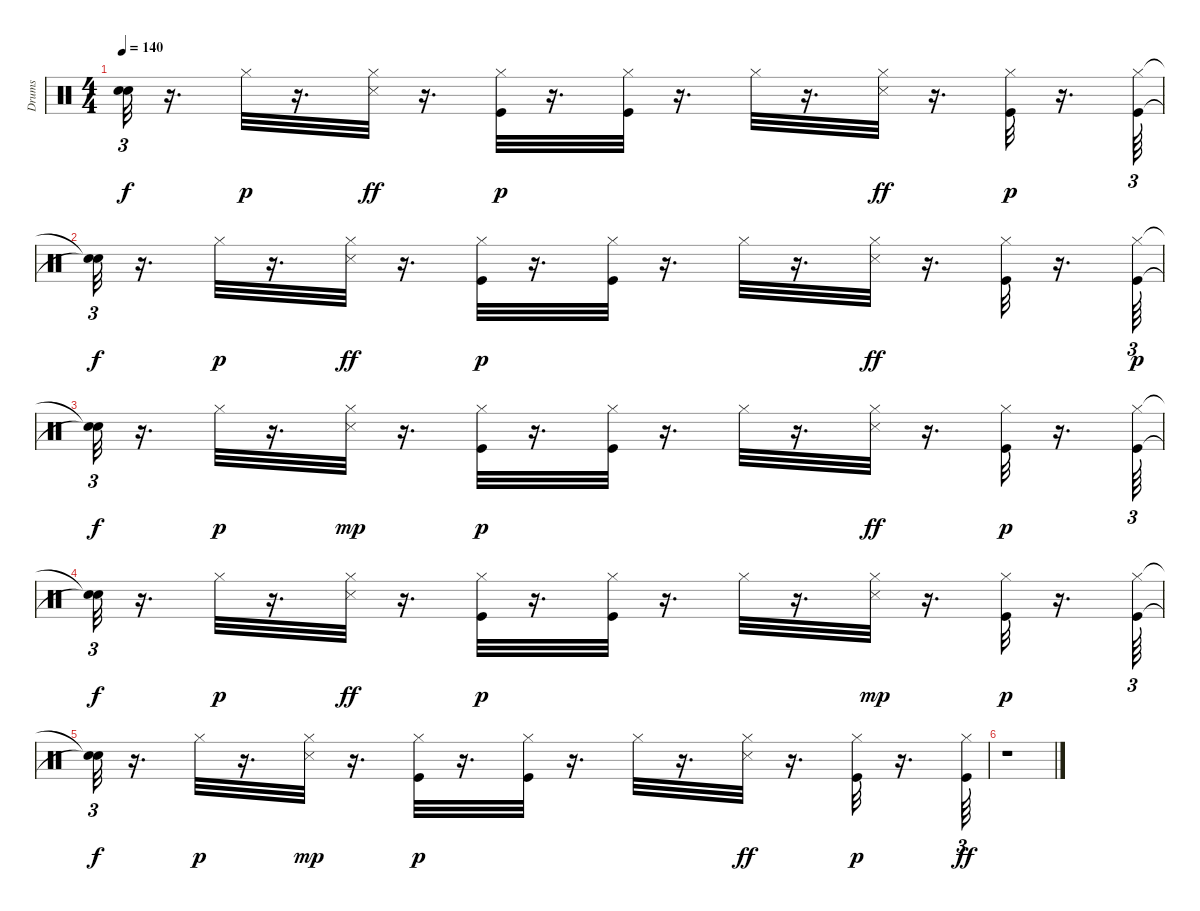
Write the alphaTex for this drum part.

\track ("Drums" "Drums") {instrument percussion}
\staff {score}
\articulation defaults
\ts (4 4)
\tempo 140
\clef neutral
\ks c
("Snare (hit)"{t} "Snare (hit)"{t}).32{tu (3 2) dy f} r.16{d} "Hi-Hat (closed)".32{dy p} r.16{d} ("Hi-Hat (closed)" "Snare (side stick) 3").32{dy ff} r.16{d} ("Hi-Hat (closed)" "Kick (hit)").32{dy p} r.16{d} ("Hi-Hat (closed)" "Kick (hit)").32 r.16{d} "Hi-Hat (closed)".32 r.16{d} ("Hi-Hat (closed)" "Snare (side stick) 3").32{dy ff} r.16{d} ("Hi-Hat (closed)" "Kick (hit)").32{dy p} r.16{d} ("Hi-Hat (closed)" "Kick (hit)").64{tu (3 2)} |
("Snare (hit)"{t} "Snare (hit)"{t}).32{tu (3 2) dy f} r.16{d} "Hi-Hat (closed)".32{dy p} r.16{d} ("Hi-Hat (closed)" "Snare (side stick) 3").32{dy ff} r.16{d} ("Hi-Hat (closed)" "Kick (hit)").32{dy p} r.16{d} ("Kick (hit)" "Hi-Hat (closed)").32 r.16{d} "Hi-Hat (closed)".32 r.16{d} ("Hi-Hat (closed)" "Snare (side stick) 3").32{dy ff} r.16{d} ("Hi-Hat (closed)" "Kick (hit)").32 r.16{d} ("Hi-Hat (closed)" "Kick (hit)").64{tu (3 2) dy p} |
("Snare (hit)"{t} "Snare (hit)"{t}).32{tu (3 2) dy f} r.16{d} "Hi-Hat (closed)".32{dy p} r.16{d} ("Snare (side stick) 3" "Hi-Hat (closed)").32{dy mp} r.16{d} ("Kick (hit)" "Hi-Hat (closed)").32{dy p} r.16{d} ("Kick (hit)" "Hi-Hat (closed)").32 r.16{d} "Hi-Hat (closed)".32 r.16{d} ("Hi-Hat (closed)" "Snare (side stick) 3").32{dy ff} r.16{d} ("Hi-Hat (closed)" "Kick (hit)").32{dy p} r.16{d} ("Hi-Hat (closed)" "Kick (hit)").64{tu (3 2)} |
("Snare (hit)"{t} "Snare (hit)"{t}).32{tu (3 2) dy f} r.16{d} "Hi-Hat (closed)".32{dy p} r.16{d} ("Hi-Hat (closed)" "Snare (side stick) 3").32{dy ff} r.16{d} ("Hi-Hat (closed)" "Kick (hit)").32{dy p} r.16{d} ("Hi-Hat (closed)" "Kick (hit)").32 r.16{d} "Hi-Hat (closed)".32 r.16{d} ("Snare (side stick) 3" "Hi-Hat (closed)").32{dy mp} r.16{d} ("Kick (hit)" "Hi-Hat (closed)").32{dy p} r.16{d} ("Kick (hit)" "Hi-Hat (closed)").64{tu (3 2)} |
("Snare (hit)"{t} "Snare (hit)"{t}).32{tu (3 2) dy f} r.16{d} "Hi-Hat (closed)".32{dy p} r.16{d} ("Hi-Hat (closed)" "Snare (side stick) 3").32{dy mp} r.16{d} ("Hi-Hat (closed)" "Kick (hit)").32{dy p} r.16{d} ("Hi-Hat (closed)" "Kick (hit)").32 r.16{d} "Hi-Hat (closed)".32 r.16{d} ("Hi-Hat (closed)" "Snare (side stick) 3").32{dy ff} r.16{d} ("Hi-Hat (closed)" "Kick (hit)").32{dy p} r.16{d} ("Hi-Hat (closed)" "Kick (hit)").64{tu (3 2) dy ff} |
r.1
